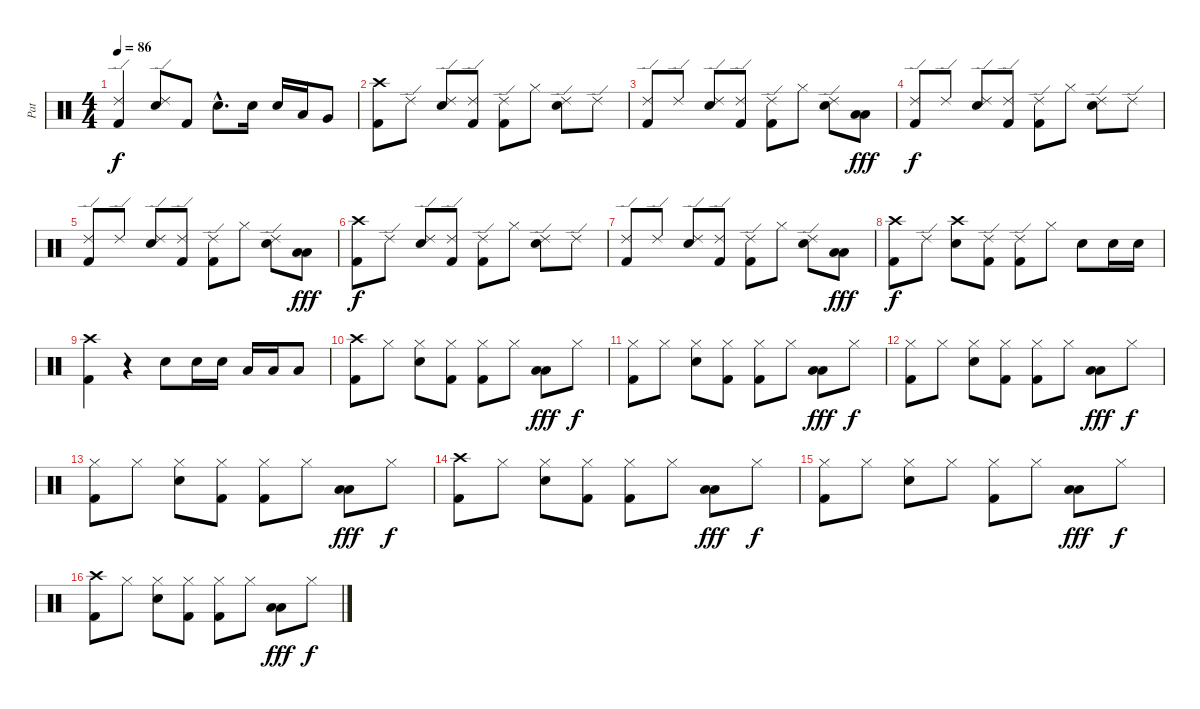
\track ("Pat" "Pat") {instrument percussion}
\staff {score}
\articulation defaults
\ts (4 4)
\tempo 86
\clef neutral
\ks c
("Ride (edge) 2" "Kick (hit) 2").4{dy f} ("Ride (edge) 2" "Snare (hit) 2").8 "Kick (hit) 2".8 "Snare (hit) 2"{hac}.8{d} "Snare (hit) 2".16 "Snare (hit) 2".16 "Low Tom (hit)".16 "Very Low Tom (hit)".8 |
("Crash high (hit)" "Kick (hit) 2").8 "Ride (edge) 2".8 ("Ride (edge) 2" "Snare (hit) 2").8 ("Ride (edge) 2" "Kick (hit) 2").8 ("Ride (edge) 2" "Kick (hit) 2").8 "Hi-Hat (closed)".8 ("Ride (edge) 2" "Snare (hit) 2").8 "Ride (edge) 2".8 |
("Ride (edge) 2" "Kick (hit) 2").8 "Ride (edge) 2".8 ("Ride (edge) 2" "Snare (hit) 2").8 ("Ride (edge) 2" "Kick (hit) 2").8 ("Ride (edge) 2" "Kick (hit) 2").8 "Hi-Hat (closed)".8 ("Ride (edge) 2" "Snare (hit) 2").8 ("Low Floor Tom (hit)" "Low Floor Tom (hit)").8{dy fff} |
("Ride (edge) 2" "Kick (hit) 2").8{dy f} "Ride (edge) 2".8 ("Ride (edge) 2" "Snare (hit) 2").8 ("Ride (edge) 2" "Kick (hit) 2").8 ("Ride (edge) 2" "Kick (hit) 2").8 "Hi-Hat (closed)".8 ("Ride (edge) 2" "Snare (hit) 2").8 "Ride (edge) 2".8 |
("Ride (edge) 2" "Kick (hit) 2").8 "Ride (edge) 2".8 ("Ride (edge) 2" "Snare (hit) 2").8 ("Ride (edge) 2" "Kick (hit) 2").8 ("Ride (edge) 2" "Kick (hit) 2").8 "Hi-Hat (closed)".8 ("Ride (edge) 2" "Snare (hit) 2").8 ("Low Floor Tom (hit)" "Low Floor Tom (hit)").8{dy fff} |
("Crash high (hit)" "Kick (hit) 2").8{dy f} "Ride (edge) 2".8 ("Ride (edge) 2" "Snare (hit) 2").8 ("Ride (edge) 2" "Kick (hit) 2").8 ("Ride (edge) 2" "Kick (hit) 2").8 "Hi-Hat (closed)".8 ("Ride (edge) 2" "Snare (hit) 2").8 "Ride (edge) 2".8 |
("Ride (edge) 2" "Kick (hit) 2").8 "Ride (edge) 2".8 ("Ride (edge) 2" "Snare (hit) 2").8 ("Ride (edge) 2" "Kick (hit) 2").8 ("Ride (edge) 2" "Kick (hit) 2").8 "Hi-Hat (closed)".8 ("Ride (edge) 2" "Snare (hit) 2").8 ("Low Floor Tom (hit)" "Low Floor Tom (hit)").8{dy fff} |
("Crash high (hit)" "Kick (hit) 2").8{dy f} "Ride (edge) 2".8 ("Crash high (hit)" "Snare (hit) 2").8 ("Ride (edge) 2" "Kick (hit) 2").8 ("Ride (edge) 2" "Kick (hit) 2").8 "Hi-Hat (closed)".8 "Snare (hit) 2".8 "Snare (hit) 2".16 "Snare (hit) 2".16 |
("Crash high (hit)" "Kick (hit) 2").4 r.4 "Snare (hit) 2".8 "Snare (hit) 2".16 "Snare (hit) 2".16 "Low Tom (hit)".16 "Low Tom (hit)".16 "Low Floor Tom (hit)".8 |
("Crash high (hit)" "Kick (hit) 2").8 "Hi-Hat (closed)".8 ("Hi-Hat (closed)" "Snare (hit) 2").8 ("Hi-Hat (closed)" "Kick (hit) 2").8 ("Hi-Hat (closed)" "Kick (hit) 2").8 "Hi-Hat (closed)".8 ("Low Floor Tom (hit)" "Low Floor Tom (hit)").8{dy fff volume 16} "Hi-Hat (closed)".8{dy f volume 12} |
("Hi-Hat (closed)" "Kick (hit) 2").8 "Hi-Hat (closed)".8 ("Hi-Hat (closed)" "Snare (hit) 2").8 ("Hi-Hat (closed)" "Kick (hit) 2").8 ("Hi-Hat (closed)" "Kick (hit) 2").8 "Hi-Hat (closed)".8 ("Low Floor Tom (hit)" "Low Floor Tom (hit)").8{dy fff volume 16} "Hi-Hat (closed)".8{dy f volume 12} |
("Hi-Hat (closed)" "Kick (hit) 2").8 "Hi-Hat (closed)".8 ("Hi-Hat (closed)" "Snare (hit) 2").8 ("Hi-Hat (closed)" "Kick (hit) 2").8 ("Hi-Hat (closed)" "Kick (hit) 2").8 "Hi-Hat (closed)".8 ("Low Floor Tom (hit)" "Low Floor Tom (hit)").8{dy fff volume 16} "Hi-Hat (closed)".8{dy f volume 12} |
("Hi-Hat (closed)" "Kick (hit) 2").8 "Hi-Hat (closed)".8 ("Hi-Hat (closed)" "Snare (hit) 2").8 ("Hi-Hat (closed)" "Kick (hit) 2").8 ("Hi-Hat (closed)" "Kick (hit) 2").8 "Hi-Hat (closed)".8 ("Low Floor Tom (hit)" "Low Floor Tom (hit)").8{dy fff volume 16} "Hi-Hat (closed)".8{dy f volume 12} |
("Crash high (hit)" "Kick (hit) 2").8 "Hi-Hat (closed)".8 ("Hi-Hat (closed)" "Snare (hit) 2").8 ("Hi-Hat (closed)" "Kick (hit) 2").8 ("Hi-Hat (closed)" "Kick (hit) 2").8 "Hi-Hat (closed)".8 ("Low Floor Tom (hit)" "Low Floor Tom (hit)").8{dy fff volume 16} "Hi-Hat (closed)".8{dy f volume 12} |
("Hi-Hat (closed)" "Kick (hit) 2").8 "Hi-Hat (closed)".8 ("Hi-Hat (closed)" "Snare (hit) 2").8 "Hi-Hat (closed)".8 ("Hi-Hat (closed)" "Kick (hit) 2").8 "Hi-Hat (closed)".8 ("Low Floor Tom (hit)" "Low Floor Tom (hit)").8{dy fff volume 16} "Hi-Hat (closed)".8{dy f volume 12} |
("Crash high (hit)" "Kick (hit) 2").8 "Hi-Hat (closed)".8 ("Hi-Hat (closed)" "Snare (hit) 2").8 ("Hi-Hat (closed)" "Kick (hit) 2").8 ("Hi-Hat (closed)" "Kick (hit) 2").8 "Hi-Hat (closed)".8 ("Low Floor Tom (hit)" "Low Floor Tom (hit)").8{dy fff volume 16} "Hi-Hat (closed)".8{dy f volume 12}
